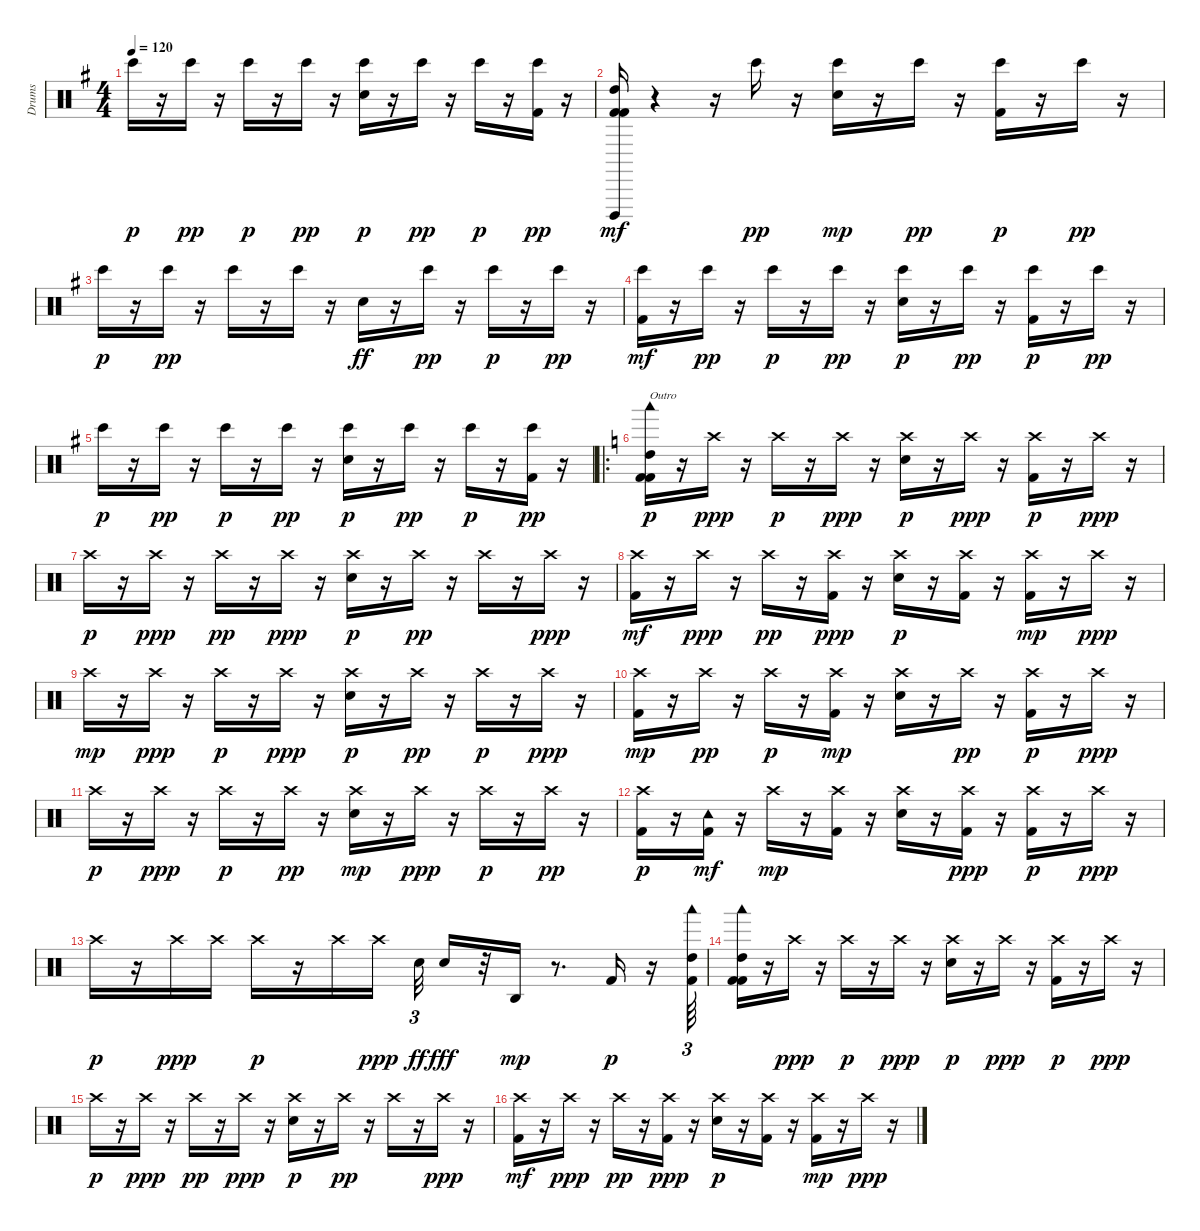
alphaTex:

\track ("Drums" "Drums") {instrument percussion}
\staff {score}
\articulation defaults
\ts (4 4)
\tempo 120
\clef neutral
\ks g "Bongo High (hit)".16{dy p}
r.16 "Bongo High (hit)".16{dy pp} r.16 "Bongo High (hit)".16{dy p} r.16 "Bongo High (hit)".16{dy pp} r.16 ("Snare (hit) 2" "Bongo High (hit)").16{dy p} r.16 "Bongo High (hit)".16{dy pp} r.16 "Bongo High (hit)".16{dy p} r.16 ("Bongo High (hit)" "Kick (hit) 2").16{dy pp} r.16 |
("Kick (hit) 2" "Kick (hit) 2" "High Tom (hit)" "Cuica (open)").16{dy mf} r.4 r.16 "Bongo High (hit)".16{dy pp} r.16 ("Snare (hit) 2" "Bongo High (hit)").16{dy mp} r.16 "Bongo High (hit)".16{dy pp} r.16 ("Kick (hit) 2" "Bongo High (hit)").16{dy p} r.16 "Bongo High (hit)".16{dy pp} r.16 |
"Bongo High (hit)".16{dy p} r.16 "Bongo High (hit)".16{dy pp} r.16 "Bongo High (hit)".16 r.16 "Bongo High (hit)".16 r.16 "Snare (hit) 2".16{dy ff} r.16 "Bongo High (hit)".16{dy pp} r.16 "Bongo High (hit)".16{dy p} r.16 "Bongo High (hit)".16{dy pp} r.16 |
("Bongo High (hit)" "Kick (hit) 2").16{dy mf} r.16 "Bongo High (hit)".16{dy pp} r.16 "Bongo High (hit)".16{dy p} r.16 "Bongo High (hit)".16{dy pp} r.16 ("Snare (hit) 2" "Bongo High (hit)").16{dy p} r.16 "Bongo High (hit)".16{dy pp} r.16 ("Kick (hit) 2" "Bongo High (hit)").16{dy p} r.16 "Bongo High (hit)".16{dy pp} r.16 |
"Bongo High (hit)".16{dy p} r.16 "Bongo High (hit)".16{dy pp} r.16 "Bongo High (hit)".16{dy p} r.16 "Bongo High (hit)".16{dy pp} r.16 ("Snare (hit) 2" "Bongo High (hit)").16{dy p} r.16 "Bongo High (hit)".16{dy pp} r.16 "Bongo High (hit)".16{dy p} r.16 ("Bongo High (hit)" "Kick (hit) 2").16{dy pp} r.16 |
\ro
\ks c
("Kick (hit) 2" "Kick (hit) 2" "High Tom (hit)" "Woodblock low (hit)").16{txt "Outro" dy p} r.16 "Crash high (hit)".16{dy ppp} r.16 "Crash high (hit)".16{dy p} r.16 "Crash high (hit)".16{dy ppp} r.16 ("Snare (hit) 2" "Crash high (hit)").16{dy p} r.16 "Crash high (hit)".16{dy ppp} r.16 ("Kick (hit) 2" "Crash high (hit)").16{dy p} r.16 "Crash high (hit)".16{dy ppp} r.16 |
"Crash high (hit)".16{dy p} r.16 "Crash high (hit)".16{dy ppp} r.16 "Crash high (hit)".16{dy pp} r.16 "Crash high (hit)".16{dy ppp} r.16 ("Crash high (hit)" "Snare (hit) 2").16{dy p} r.16 "Crash high (hit)".16{dy pp} r.16 "Crash high (hit)".16 r.16 "Crash high (hit)".16{dy ppp} r.16 |
("Crash high (hit)" "Kick (hit) 2").16{dy mf} r.16 "Crash high (hit)".16{dy ppp} r.16 "Crash high (hit)".16{dy pp} r.16 ("Kick (hit) 2" "Crash high (hit)").16{dy ppp} r.16 ("Snare (hit) 2" "Crash high (hit)").16{dy p} r.16 ("Crash high (hit)" "Kick (hit) 2").16 r.16 ("Kick (hit) 2" "Crash high (hit)").16{dy mp} r.16 "Crash high (hit)".16{dy ppp} r.16 |
"Crash high (hit)".16{dy mp} r.16 "Crash high (hit)".16{dy ppp} r.16 "Crash high (hit)".16{dy p} r.16 "Crash high (hit)".16{dy ppp} r.16 ("Snare (hit) 2" "Crash high (hit)").16{dy p} r.16 "Crash high (hit)".16{dy pp} r.16 "Crash high (hit)".16{dy p} r.16 "Crash high (hit)".16{dy ppp} r.16 |
("Crash high (hit)" "Kick (hit) 2").16{dy mp} r.16 "Crash high (hit)".16{dy pp} r.16 "Crash high (hit)".16{dy p} r.16 ("Crash high (hit)" "Kick (hit) 2").16{dy mp} r.16 ("Snare (hit) 2" "Crash high (hit)").16 r.16 "Crash high (hit)".16{dy pp} r.16 ("Kick (hit) 2" "Crash high (hit)").16{dy p} r.16 "Crash high (hit)".16{dy ppp} r.16 |
"Crash high (hit)".16{dy p} r.16 "Crash high (hit)".16{dy ppp} r.16 "Crash high (hit)".16{dy p} r.16 "Crash high (hit)".16{dy pp} r.16 ("Snare (hit) 2" "Crash high (hit)").16{dy mp} r.16 "Crash high (hit)".16{dy ppp} r.16 "Crash high (hit)".16{dy p} r.16 "Crash high (hit)".16{dy pp} r.16 |
("Kick (hit) 2" "Crash high (hit)").16{dy p} r.16 ("Kick (hit) 2" "Tambourine (hit)").16{dy mf} r.16 "Crash high (hit)".16{dy mp} r.16 ("Crash high (hit)" "Kick (hit) 2").16 r.16 ("Snare (hit) 2" "Crash high (hit)").16 r.16 ("Kick (hit) 2" "Crash high (hit)").16{dy ppp} r.16 ("Kick (hit) 2" "Crash high (hit)").16{dy p} r.16 "Crash high (hit)".16{dy ppp} r.16 |
"Crash high (hit)".16{dy p} r.16 "Crash high (hit)".16{dy ppp} "Crash high (hit)".16 "Crash high (hit)".16{dy p} r.16 "Crash high (hit)".16 "Crash high (hit)".16{dy ppp} "Snare (hit) 2".32{tu (3 2) dy ff} "Snare (hit) 2".16{dy fff} r.32 "Agogo high (hit)".16{dy mp} r.8{d} "Kick (hit) 2".16{dy p} r.16 ("Kick (hit) 2" "High Tom (hit)" "Woodblock low (hit)").64{tu (3 2)} |
("Kick (hit) 2" "Kick (hit) 2" "High Tom (hit)" "Woodblock low (hit)").16 r.16 "Crash high (hit)".16{dy ppp} r.16 "Crash high (hit)".16{dy p} r.16 "Crash high (hit)".16{dy ppp} r.16 ("Snare (hit) 2" "Crash high (hit)").16{dy p} r.16 "Crash high (hit)".16{dy ppp} r.16 ("Kick (hit) 2" "Crash high (hit)").16{dy p} r.16 "Crash high (hit)".16{dy ppp} r.16 |
"Crash high (hit)".16{dy p} r.16 "Crash high (hit)".16{dy ppp} r.16 "Crash high (hit)".16{dy pp} r.16 "Crash high (hit)".16{dy ppp} r.16 ("Crash high (hit)" "Snare (hit) 2").16{dy p} r.16 "Crash high (hit)".16{dy pp} r.16 "Crash high (hit)".16 r.16 "Crash high (hit)".16{dy ppp} r.16 |
("Crash high (hit)" "Kick (hit) 2").16{dy mf} r.16 "Crash high (hit)".16{dy ppp} r.16 "Crash high (hit)".16{dy pp} r.16 ("Kick (hit) 2" "Crash high (hit)").16{dy ppp} r.16 ("Snare (hit) 2" "Crash high (hit)").16{dy p} r.16 ("Crash high (hit)" "Kick (hit) 2").16 r.16 ("Kick (hit) 2" "Crash high (hit)").16{dy mp} r.16 "Crash high (hit)".16{dy ppp} r.16
